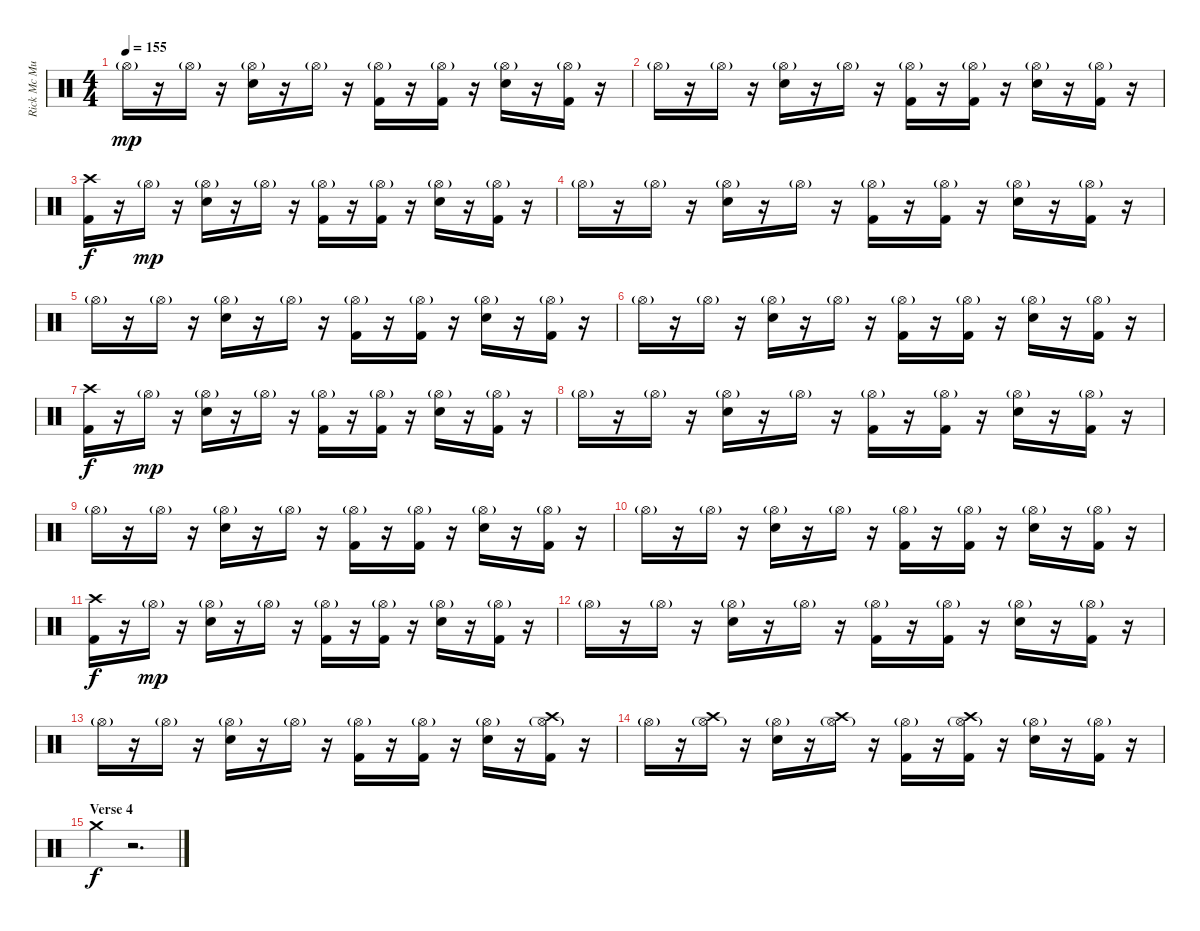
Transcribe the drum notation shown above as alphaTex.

\track ("Rick Mc Murray" "Rick Mc Mu") {instrument percussion}
\staff {score}
\articulation defaults
\ts (4 4)
\tempo 155
\clef neutral
\ks c "Hi-Hat (open)"{g}.16{dy mp}
r.16 "Hi-Hat (open)"{g}.16 r.16 ("Hi-Hat (open)"{g} "Electric Snare (hit)").16 r.16 "Hi-Hat (open)"{g}.16 r.16 ("Hi-Hat (open)"{g} "Kick (hit) 2").16 r.16 ("Hi-Hat (open)"{g} "Kick (hit) 2").16 r.16 ("Hi-Hat (open)"{g} "Electric Snare (hit)").16 r.16 ("Hi-Hat (open)"{g} "Kick (hit) 2").16 r.16 |
"Hi-Hat (open)"{g}.16 r.16 "Hi-Hat (open)"{g}.16 r.16 ("Hi-Hat (open)"{g} "Electric Snare (hit)").16 r.16 "Hi-Hat (open)"{g}.16 r.16 ("Hi-Hat (open)"{g} "Kick (hit) 2").16 r.16 ("Hi-Hat (open)"{g} "Kick (hit) 2").16 r.16 ("Hi-Hat (open)"{g} "Electric Snare (hit)").16 r.16 ("Hi-Hat (open)"{g} "Kick (hit) 2").16 r.16 |
("Crash high (hit)" "Kick (hit) 2").16{dy f} r.16 "Hi-Hat (open)"{g}.16{dy mp} r.16 ("Hi-Hat (open)"{g} "Electric Snare (hit)").16 r.16 "Hi-Hat (open)"{g}.16 r.16 ("Hi-Hat (open)"{g} "Kick (hit) 2").16 r.16 ("Hi-Hat (open)"{g} "Kick (hit) 2").16 r.16 ("Hi-Hat (open)"{g} "Electric Snare (hit)").16 r.16 ("Hi-Hat (open)"{g} "Kick (hit) 2").16 r.16 |
"Hi-Hat (open)"{g}.16 r.16 "Hi-Hat (open)"{g}.16 r.16 ("Hi-Hat (open)"{g} "Electric Snare (hit)").16 r.16 "Hi-Hat (open)"{g}.16 r.16 ("Hi-Hat (open)"{g} "Kick (hit) 2").16 r.16 ("Hi-Hat (open)"{g} "Kick (hit) 2").16 r.16 ("Hi-Hat (open)"{g} "Electric Snare (hit)").16 r.16 ("Hi-Hat (open)"{g} "Kick (hit) 2").16 r.16 |
"Hi-Hat (open)"{g}.16 r.16 "Hi-Hat (open)"{g}.16 r.16 ("Hi-Hat (open)"{g} "Electric Snare (hit)").16 r.16 "Hi-Hat (open)"{g}.16 r.16 ("Hi-Hat (open)"{g} "Kick (hit) 2").16 r.16 ("Hi-Hat (open)"{g} "Kick (hit) 2").16 r.16 ("Hi-Hat (open)"{g} "Electric Snare (hit)").16 r.16 ("Hi-Hat (open)"{g} "Kick (hit) 2").16 r.16 |
"Hi-Hat (open)"{g}.16 r.16 "Hi-Hat (open)"{g}.16 r.16 ("Hi-Hat (open)"{g} "Electric Snare (hit)").16 r.16 "Hi-Hat (open)"{g}.16 r.16 ("Hi-Hat (open)"{g} "Kick (hit) 2").16 r.16 ("Hi-Hat (open)"{g} "Kick (hit) 2").16 r.16 ("Hi-Hat (open)"{g} "Electric Snare (hit)").16 r.16 ("Hi-Hat (open)"{g} "Kick (hit) 2").16 r.16 |
("Crash high (hit)" "Kick (hit) 2").16{dy f} r.16 "Hi-Hat (open)"{g}.16{dy mp} r.16 ("Hi-Hat (open)"{g} "Electric Snare (hit)").16 r.16 "Hi-Hat (open)"{g}.16 r.16 ("Hi-Hat (open)"{g} "Kick (hit) 2").16 r.16 ("Hi-Hat (open)"{g} "Kick (hit) 2").16 r.16 ("Hi-Hat (open)"{g} "Electric Snare (hit)").16 r.16 ("Hi-Hat (open)"{g} "Kick (hit) 2").16 r.16 |
"Hi-Hat (open)"{g}.16 r.16 "Hi-Hat (open)"{g}.16 r.16 ("Hi-Hat (open)"{g} "Electric Snare (hit)").16 r.16 "Hi-Hat (open)"{g}.16 r.16 ("Hi-Hat (open)"{g} "Kick (hit) 2").16 r.16 ("Hi-Hat (open)"{g} "Kick (hit) 2").16 r.16 ("Hi-Hat (open)"{g} "Electric Snare (hit)").16 r.16 ("Hi-Hat (open)"{g} "Kick (hit) 2").16 r.16 |
"Hi-Hat (open)"{g}.16 r.16 "Hi-Hat (open)"{g}.16 r.16 ("Hi-Hat (open)"{g} "Electric Snare (hit)").16 r.16 "Hi-Hat (open)"{g}.16 r.16 ("Hi-Hat (open)"{g} "Kick (hit) 2").16 r.16 ("Hi-Hat (open)"{g} "Kick (hit) 2").16 r.16 ("Hi-Hat (open)"{g} "Electric Snare (hit)").16 r.16 ("Hi-Hat (open)"{g} "Kick (hit) 2").16 r.16 |
"Hi-Hat (open)"{g}.16 r.16 "Hi-Hat (open)"{g}.16 r.16 ("Hi-Hat (open)"{g} "Electric Snare (hit)").16 r.16 "Hi-Hat (open)"{g}.16 r.16 ("Hi-Hat (open)"{g} "Kick (hit) 2").16 r.16 ("Hi-Hat (open)"{g} "Kick (hit) 2").16 r.16 ("Hi-Hat (open)"{g} "Electric Snare (hit)").16 r.16 ("Hi-Hat (open)"{g} "Kick (hit) 2").16 r.16 |
("Crash high (hit)" "Kick (hit) 2").16{dy f} r.16 "Hi-Hat (open)"{g}.16{dy mp} r.16 ("Hi-Hat (open)"{g} "Electric Snare (hit)").16 r.16 "Hi-Hat (open)"{g}.16 r.16 ("Hi-Hat (open)"{g} "Kick (hit) 2").16 r.16 ("Hi-Hat (open)"{g} "Kick (hit) 2").16 r.16 ("Hi-Hat (open)"{g} "Electric Snare (hit)").16 r.16 ("Hi-Hat (open)"{g} "Kick (hit) 2").16 r.16 |
"Hi-Hat (open)"{g}.16 r.16 "Hi-Hat (open)"{g}.16 r.16 ("Hi-Hat (open)"{g} "Electric Snare (hit)").16 r.16 "Hi-Hat (open)"{g}.16 r.16 ("Hi-Hat (open)"{g} "Kick (hit) 2").16 r.16 ("Hi-Hat (open)"{g} "Kick (hit) 2").16 r.16 ("Hi-Hat (open)"{g} "Electric Snare (hit)").16 r.16 ("Hi-Hat (open)"{g} "Kick (hit) 2").16 r.16 |
"Hi-Hat (open)"{g}.16 r.16 "Hi-Hat (open)"{g}.16 r.16 ("Hi-Hat (open)"{g} "Electric Snare (hit)").16 r.16 "Hi-Hat (open)"{g}.16 r.16 ("Hi-Hat (open)"{g} "Kick (hit) 2").16 r.16 ("Hi-Hat (open)"{g} "Kick (hit) 2").16 r.16 ("Hi-Hat (open)"{g} "Electric Snare (hit)").16 r.16 ("Hi-Hat (open)"{g} "Crash high (hit)" "Kick (hit) 2").16 r.16 |
"Hi-Hat (open)"{g}.16 r.16 ("Hi-Hat (open)"{g} "Crash high (hit)").16 r.16 ("Hi-Hat (open)"{g} "Electric Snare (hit)").16 r.16 ("Hi-Hat (open)"{g} "Crash high (hit)").16 r.16 ("Hi-Hat (open)"{g} "Kick (hit) 2").16 r.16 ("Hi-Hat (open)"{g} "Crash high (hit)" "Kick (hit) 2").16 r.16 ("Hi-Hat (open)"{g} "Electric Snare (hit)").16 r.16 ("Hi-Hat (open)"{g} "Kick (hit) 2").16 r.16 |
\section ("" "Verse 4")
"Crash medium (hit)".4{dy f} r.2{d}
